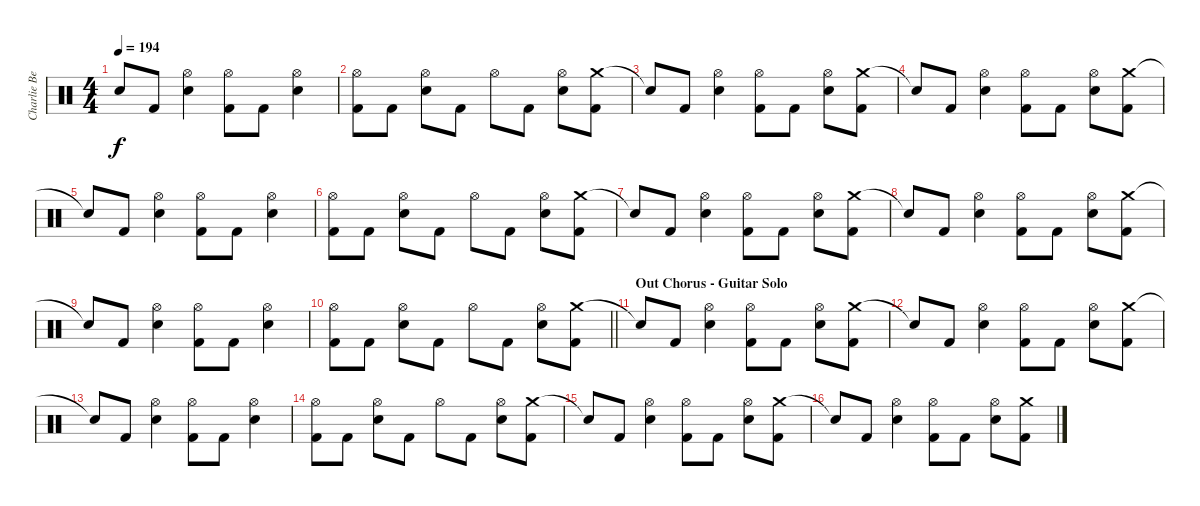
\track ("Charlie Benate " "Charlie Be") {instrument percussion}
\staff {score}
\articulation defaults
\ts (4 4)
\tempo 194
\clef neutral
\ks c "Snare (hit)"{t}.8{dy f} "Kick (hit) 2".8
("Hi-Hat (open)" "Snare (hit) 2").4 ("Hi-Hat (open)" "Kick (hit) 2").8 "Kick (hit) 2".8 ("Hi-Hat (open)" "Snare (hit) 2").4 |
("Hi-Hat (open)" "Kick (hit) 2").8 "Kick (hit) 2".8 ("Hi-Hat (open)" "Snare (hit) 2").8 "Kick (hit) 2".8 "Hi-Hat (open)".8 "Kick (hit) 2".8 ("Hi-Hat (open)" "Snare (hit) 2").8 ("Crash medium (hit)" "Kick (hit) 2").8 |
"Snare (hit)"{t}.8 "Kick (hit) 2".8 ("Hi-Hat (open)" "Snare (hit) 2").4 ("Hi-Hat (open)" "Kick (hit) 2").8 "Kick (hit) 2".8 ("Hi-Hat (open)" "Snare (hit) 2").8 ("Crash medium (hit)" "Kick (hit) 2").8 |
"Snare (hit)"{t}.8 "Kick (hit) 2".8 ("Hi-Hat (open)" "Snare (hit) 2").4 ("Hi-Hat (open)" "Kick (hit) 2").8 "Kick (hit) 2".8 ("Hi-Hat (open)" "Snare (hit) 2").8 ("Crash medium (hit)" "Kick (hit) 2").8 |
"Snare (hit)"{t}.8 "Kick (hit) 2".8 ("Hi-Hat (open)" "Snare (hit) 2").4 ("Hi-Hat (open)" "Kick (hit) 2").8 "Kick (hit) 2".8 ("Hi-Hat (open)" "Snare (hit) 2").4 |
("Hi-Hat (open)" "Kick (hit) 2").8 "Kick (hit) 2".8 ("Hi-Hat (open)" "Snare (hit) 2").8 "Kick (hit) 2".8 "Hi-Hat (open)".8 "Kick (hit) 2".8 ("Hi-Hat (open)" "Snare (hit) 2").8 ("Crash medium (hit)" "Kick (hit) 2").8 |
"Snare (hit)"{t}.8 "Kick (hit) 2".8 ("Hi-Hat (open)" "Snare (hit) 2").4 ("Hi-Hat (open)" "Kick (hit) 2").8 "Kick (hit) 2".8 ("Hi-Hat (open)" "Snare (hit) 2").8 ("Crash medium (hit)" "Kick (hit) 2").8 |
"Snare (hit)"{t}.8 "Kick (hit) 2".8 ("Hi-Hat (open)" "Snare (hit) 2").4 ("Hi-Hat (open)" "Kick (hit) 2").8 "Kick (hit) 2".8 ("Hi-Hat (open)" "Snare (hit) 2").8 ("Crash medium (hit)" "Kick (hit) 2").8 |
"Snare (hit)"{t}.8 "Kick (hit) 2".8 ("Hi-Hat (open)" "Snare (hit) 2").4 ("Hi-Hat (open)" "Kick (hit) 2").8 "Kick (hit) 2".8 ("Hi-Hat (open)" "Snare (hit) 2").4 |
\barLineRight lightlight
("Hi-Hat (open)" "Kick (hit) 2").8 "Kick (hit) 2".8 ("Hi-Hat (open)" "Snare (hit) 2").8 "Kick (hit) 2".8 "Hi-Hat (open)".8 "Kick (hit) 2".8 ("Hi-Hat (open)" "Snare (hit) 2").8 ("Crash medium (hit)" "Kick (hit) 2").8 |
\section ("" "Out Chorus - Guitar Solo")
"Snare (hit)"{t}.8 "Kick (hit) 2".8 ("Hi-Hat (open)" "Snare (hit) 2").4 ("Hi-Hat (open)" "Kick (hit) 2").8 "Kick (hit) 2".8 ("Hi-Hat (open)" "Snare (hit) 2").8 ("Crash medium (hit)" "Kick (hit) 2").8 |
"Snare (hit)"{t}.8 "Kick (hit) 2".8 ("Hi-Hat (open)" "Snare (hit) 2").4 ("Hi-Hat (open)" "Kick (hit) 2").8 "Kick (hit) 2".8 ("Hi-Hat (open)" "Snare (hit) 2").8 ("Crash medium (hit)" "Kick (hit) 2").8 |
"Snare (hit)"{t}.8 "Kick (hit) 2".8 ("Hi-Hat (open)" "Snare (hit) 2").4 ("Hi-Hat (open)" "Kick (hit) 2").8 "Kick (hit) 2".8 ("Hi-Hat (open)" "Snare (hit) 2").4 |
("Hi-Hat (open)" "Kick (hit) 2").8 "Kick (hit) 2".8 ("Hi-Hat (open)" "Snare (hit) 2").8 "Kick (hit) 2".8 "Hi-Hat (open)".8 "Kick (hit) 2".8 ("Hi-Hat (open)" "Snare (hit) 2").8 ("Crash medium (hit)" "Kick (hit) 2").8 |
"Snare (hit)"{t}.8 "Kick (hit) 2".8 ("Hi-Hat (open)" "Snare (hit) 2").4 ("Hi-Hat (open)" "Kick (hit) 2").8 "Kick (hit) 2".8 ("Hi-Hat (open)" "Snare (hit) 2").8 ("Crash medium (hit)" "Kick (hit) 2").8 |
"Snare (hit)"{t}.8 "Kick (hit) 2".8 ("Hi-Hat (open)" "Snare (hit) 2").4 ("Hi-Hat (open)" "Kick (hit) 2").8 "Kick (hit) 2".8 ("Hi-Hat (open)" "Snare (hit) 2").8 ("Crash medium (hit)" "Kick (hit) 2").8
